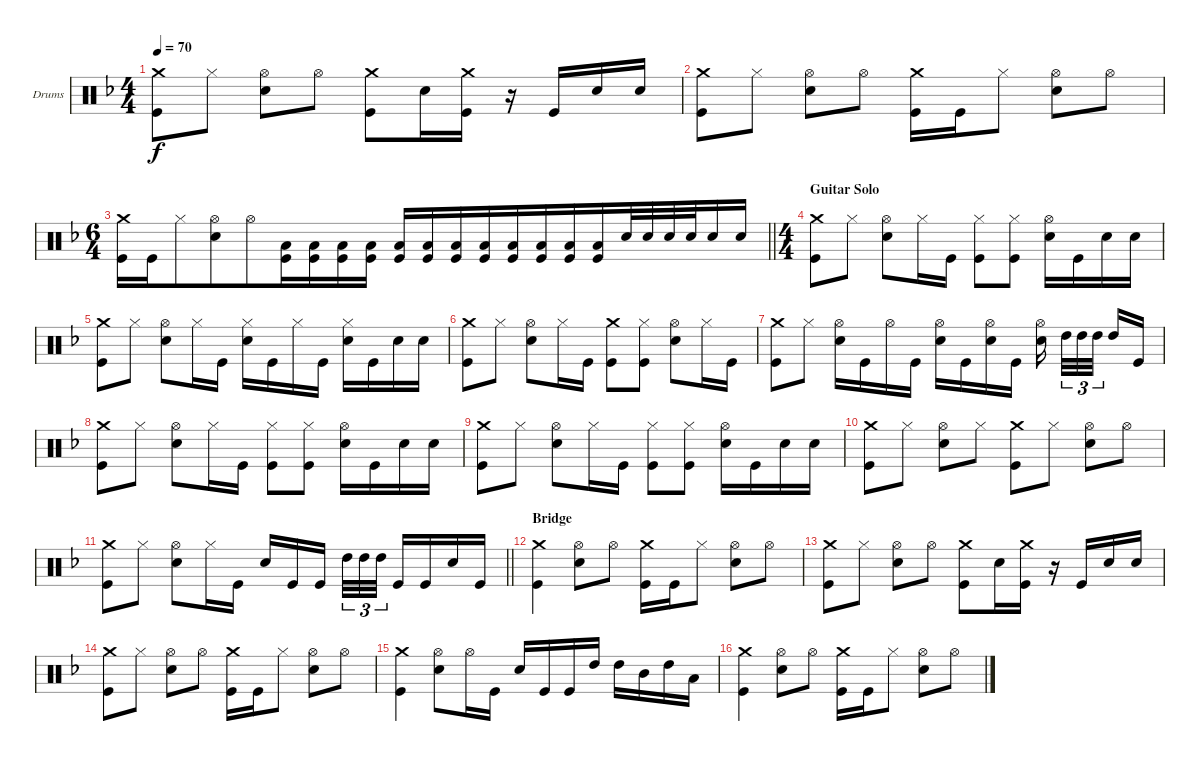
\bracketExtendMode groupsimilarinstruments
\firstSystemTrackNameOrientation horizontal
\otherSystemsTrackNameOrientation horizontal
\track ("Барабаны" "Drums") {instrument percussion}
\staff {score}
\articulation defaults
\ts (4 4)
\tempo 70
\clef neutral
\ks dminor
("Kick (hit)" "Crash medium (hit)").8{dy f} "Hi-Hat (closed)".8 ("Snare (hit) 2" "Hi-Hat (open)").8 "Hi-Hat (open)".8 ("Kick (hit)" "Crash medium (hit)").8 "Snare (hit) 2".16 ("Kick (hit)" "Crash medium (hit)").16 r.16 "Kick (hit)".16 "Snare (hit) 2".16 "Snare (hit) 2".16 |
("Kick (hit)" "Crash medium (hit)").8 "Hi-Hat (closed)".8 ("Snare (hit) 2" "Hi-Hat (open)").8 "Hi-Hat (open)".8 ("Kick (hit)" "Crash medium (hit)").16 "Kick (hit)".16 "Hi-Hat (closed)".8 ("Snare (hit) 2" "Hi-Hat (open)").8 "Hi-Hat (open)".8 |
\ts (6 4)
\beaming (8 6 6)
\barLineRight lightlight
("Kick (hit)" "Crash medium (hit)").16 "Kick (hit)".16 "Hi-Hat (closed)".8 ("Snare (hit) 2" "Hi-Hat (open)").8 "Hi-Hat (open)".8 ("Kick (hit)" "Low Tom (hit)").16 ("Kick (hit)" "Low Tom (hit)").16 ("Kick (hit)" "Low Tom (hit)").16 ("Kick (hit)" "Low Tom (hit)").16 ("Kick (hit)" "Low Tom (hit)").16 ("Kick (hit)" "Low Tom (hit)").16 ("Kick (hit)" "Low Tom (hit)").16 ("Kick (hit)" "Low Tom (hit)").16 ("Kick (hit)" "Low Tom (hit)").16 ("Kick (hit)" "Low Tom (hit)").16 ("Kick (hit)" "Low Tom (hit)").16 ("Kick (hit)" "Low Tom (hit)").16 "Snare (hit) 2".32 "Snare (hit) 2".32 "Snare (hit) 2".32 "Snare (hit) 2".32 "Snare (hit) 2".16 "Snare (hit) 2".16 |
\ts (4 4)
\beaming (8 2 2 2 2)
\section ("" "Guitar Solo")
("Kick (hit)" "Crash medium (hit)").8 "Hi-Hat (closed)".8 ("Snare (hit) 2" "Hi-Hat (open)").8 "Hi-Hat (closed)".16 "Kick (hit)".16 ("Kick (hit)" "Hi-Hat (closed)").8 ("Kick (hit)" "Hi-Hat (closed)").8 ("Snare (hit) 2" "Hi-Hat (open)").16 "Kick (hit)".16 "Snare (hit) 2".16 "Snare (hit) 2".16 |
("Kick (hit)" "Crash medium (hit)").8 "Hi-Hat (closed)".8 ("Snare (hit) 2" "Hi-Hat (open)").8 "Hi-Hat (closed)".16 "Kick (hit)".16 ("Hi-Hat (closed)" "Snare (hit) 2").16 "Kick (hit)".16 "Hi-Hat (closed)".16 "Kick (hit)".16 ("Snare (hit) 2" "Hi-Hat (closed)").16 "Kick (hit)".16 "Snare (hit) 2".16 "Snare (hit) 2".16 |
("Kick (hit)" "Crash medium (hit)").8 "Hi-Hat (closed)".8 ("Snare (hit) 2" "Hi-Hat (open)").8 "Hi-Hat (closed)".16 "Kick (hit)".16 ("Kick (hit)" "Crash medium (hit)").8 ("Kick (hit)" "Hi-Hat (closed)").8 ("Snare (hit) 2" "Hi-Hat (open)").8 "Hi-Hat (closed)".16 "Kick (hit)".16 |
("Kick (hit)" "Crash medium (hit)").8 "Hi-Hat (closed)".8 ("Snare (hit) 2" "Hi-Hat (open)").16 "Kick (hit)".16 "Hi-Hat (open)".16 "Kick (hit)".16 ("Hi-Hat (open)" "Snare (hit) 2").16 "Kick (hit)".16 ("Snare (hit) 2" "Hi-Hat (open)").16 "Kick (hit)".16 ("Snare (hit) 2" "Hi-Hat (open)").16 "High Tom (hit)".32{tu (3 2)} "High Tom (hit)".32{tu (3 2)} "High Tom (hit)".32{tu (3 2)} "High Tom (hit)".16 "Kick (hit)".16 |
("Kick (hit)" "Crash medium (hit)").8 "Hi-Hat (closed)".8 ("Snare (hit) 2" "Hi-Hat (open)").8 "Hi-Hat (closed)".16 "Kick (hit)".16 ("Kick (hit)" "Hi-Hat (closed)").8 ("Kick (hit)" "Hi-Hat (closed)").8 ("Snare (hit) 2" "Hi-Hat (open)").16 "Kick (hit)".16 "Snare (hit) 2".16 "Snare (hit) 2".16 |
("Kick (hit)" "Crash medium (hit)").8 "Hi-Hat (closed)".8 ("Snare (hit) 2" "Hi-Hat (open)").8 "Hi-Hat (closed)".16 "Kick (hit)".16 ("Kick (hit)" "Hi-Hat (closed)").8 ("Kick (hit)" "Hi-Hat (closed)").8 ("Snare (hit) 2" "Hi-Hat (open)").16 "Kick (hit)".16 "Snare (hit) 2".16 "Snare (hit) 2".16 |
("Kick (hit)" "Crash medium (hit)").8 "Hi-Hat (closed)".8 ("Snare (hit) 2" "Hi-Hat (open)").8 "Hi-Hat (closed)".8 ("Kick (hit)" "Crash medium (hit)").8 "Hi-Hat (closed)".8 ("Snare (hit) 2" "Hi-Hat (open)").8 "Hi-Hat (open)".8 |
\barLineRight lightlight
("Kick (hit)" "Crash medium (hit)").8 "Hi-Hat (closed)".8 ("Snare (hit) 2" "Hi-Hat (open)").8 "Hi-Hat (closed)".16 "Kick (hit)".16 "Snare (hit) 2".16 "Kick (hit)".16 "Kick (hit)".16 "High Tom (hit)".32{tu (3 2)} "High Tom (hit)".32{tu (3 2)} "High Tom (hit)".32{tu (3 2)} "Kick (hit)".16 "Kick (hit)".16 "Snare (hit) 2".16 "Kick (hit)".16 |
\section ("" "Bridge")
("Kick (hit)" "Crash medium (hit)").4 ("Snare (hit) 2" "Hi-Hat (open)").8 "Hi-Hat (open)".8 ("Kick (hit)" "Crash medium (hit)").16 "Kick (hit)".16 "Hi-Hat (closed)".8 ("Snare (hit) 2" "Hi-Hat (open)").8 "Hi-Hat (open)".8 |
("Kick (hit)" "Crash medium (hit)").8 "Hi-Hat (closed)".8 ("Snare (hit) 2" "Hi-Hat (open)").8 "Hi-Hat (open)".8 ("Kick (hit)" "Crash medium (hit)").8 "Snare (hit) 2".16 ("Kick (hit)" "Crash medium (hit)").16 r.16 "Kick (hit)".16 "Snare (hit) 2".16 "Snare (hit) 2".16 |
("Kick (hit)" "Crash medium (hit)").8 "Hi-Hat (closed)".8 ("Snare (hit) 2" "Hi-Hat (open)").8 "Hi-Hat (open)".8 ("Kick (hit)" "Crash medium (hit)").16 "Kick (hit)".16 "Hi-Hat (closed)".8 ("Snare (hit) 2" "Hi-Hat (open)").8 "Hi-Hat (open)".8 |
("Kick (hit)" "Crash medium (hit)").4 ("Snare (hit) 2" "Hi-Hat (open)").8 "Hi-Hat (open)".16 "Kick (hit)".16 "Snare (hit) 2".16 "Kick (hit)".16 "Kick (hit)".16 "High Tom (hit)".16 "High Tom (hit)".16 "Mid Tom (hit)".16 "High Tom (hit)".16 "Low Tom (hit)".16 |
("Kick (hit)" "Crash medium (hit)").4 ("Snare (hit) 2" "Hi-Hat (open)").8 "Hi-Hat (open)".8 ("Kick (hit)" "Crash medium (hit)").16 "Kick (hit)".16 "Hi-Hat (closed)".8 ("Snare (hit) 2" "Hi-Hat (open)").8 "Hi-Hat (open)".8
